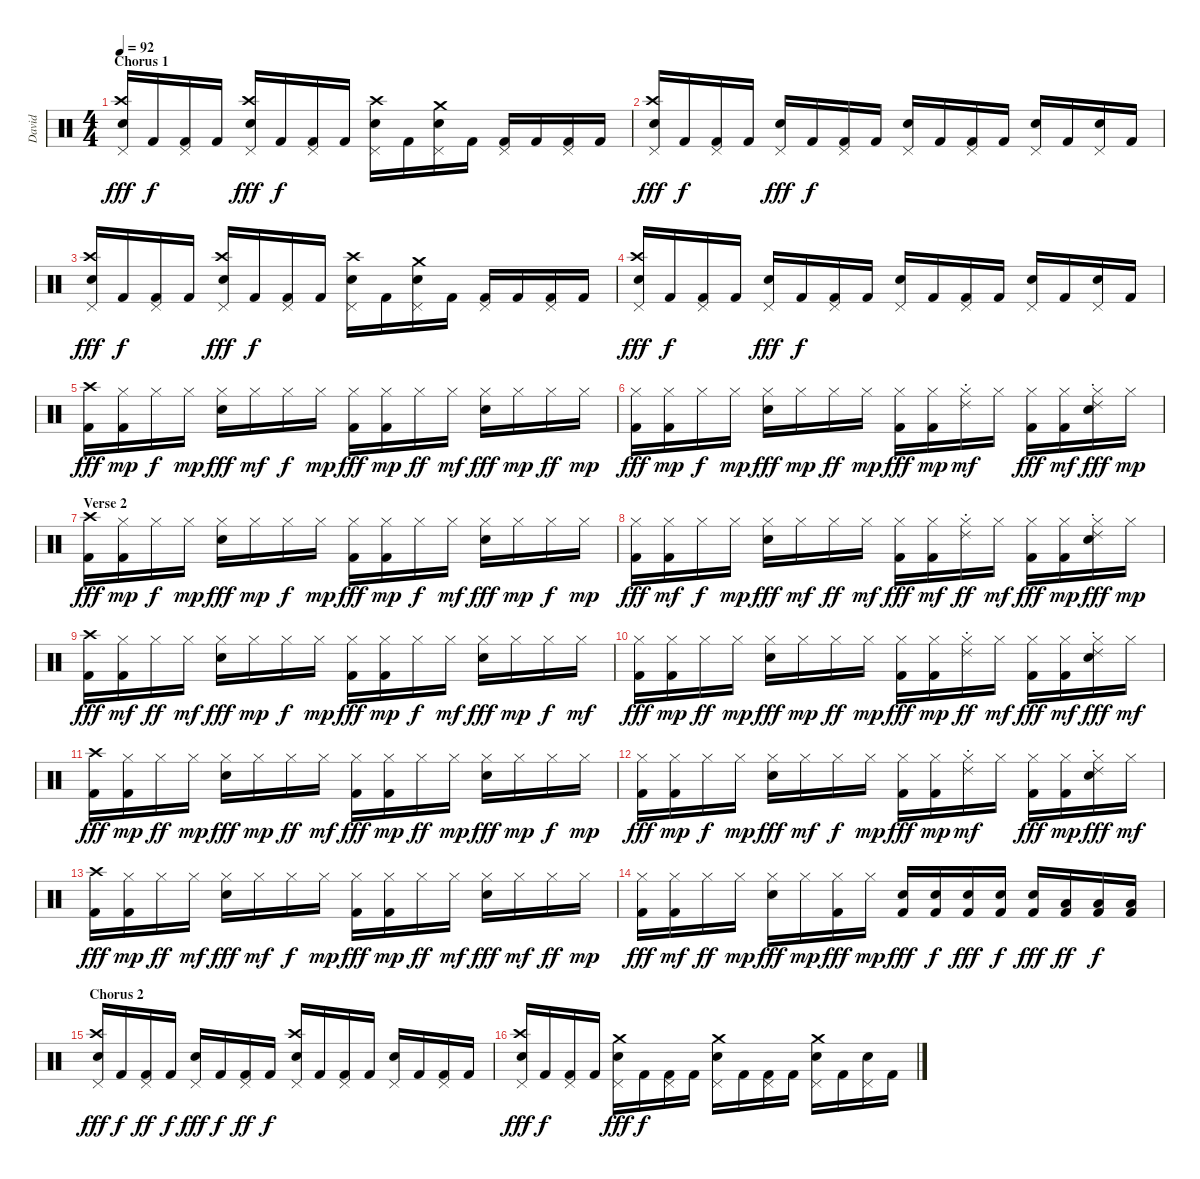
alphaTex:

\track ("David" "David") {instrument percussion}
\staff {score}
\articulation defaults
\ts (4 4)
\section ("" "Chorus 1")
\tempo 92
\clef neutral
\ks c
("Pedal Hi-Hat (hit)" "Crash high (hit)" "Electric Snare (hit)").16{dy fff} "Kick (hit) 2".16{dy f} ("Pedal Hi-Hat (hit)" "Kick (hit) 2").16 "Kick (hit) 2".16 ("Pedal Hi-Hat (hit)" "Crash high (hit)" "Electric Snare (hit)").16{dy fff} "Kick (hit) 2".16{dy f} ("Pedal Hi-Hat (hit)" "Kick (hit) 2").16 "Kick (hit) 2".16 ("Pedal Hi-Hat (hit)" "Crash high (hit)" "Electric Snare (hit)").16 "Kick (hit) 2".16 ("Pedal Hi-Hat (hit)" "Crash medium (hit)" "Electric Snare (hit)").16 "Kick (hit) 2".16 ("Pedal Hi-Hat (hit)" "Kick (hit) 2").16 "Kick (hit) 2".16 ("Pedal Hi-Hat (hit)" "Kick (hit) 2").16 "Kick (hit) 2".16 |
("Pedal Hi-Hat (hit)" "Crash high (hit)" "Electric Snare (hit)").16{dy fff} "Kick (hit) 2".16{dy f} ("Pedal Hi-Hat (hit)" "Kick (hit) 2").16 "Kick (hit) 2".16 ("Pedal Hi-Hat (hit)" "Electric Snare (hit)").16{dy fff} "Kick (hit) 2".16{dy f} ("Pedal Hi-Hat (hit)" "Kick (hit) 2").16 "Kick (hit) 2".16 ("Pedal Hi-Hat (hit)" "Electric Snare (hit)").16 "Kick (hit) 2".16 ("Pedal Hi-Hat (hit)" "Kick (hit) 2").16 "Kick (hit) 2".16 ("Pedal Hi-Hat (hit)" "Electric Snare (hit)").16 "Kick (hit) 2".16 ("Pedal Hi-Hat (hit)" "Electric Snare (hit)").16 "Kick (hit) 2".16 |
("Pedal Hi-Hat (hit)" "Crash high (hit)" "Electric Snare (hit)").16{dy fff} "Kick (hit) 2".16{dy f} ("Pedal Hi-Hat (hit)" "Kick (hit) 2").16 "Kick (hit) 2".16 ("Pedal Hi-Hat (hit)" "Crash high (hit)" "Electric Snare (hit)").16{dy fff} "Kick (hit) 2".16{dy f} ("Pedal Hi-Hat (hit)" "Kick (hit) 2").16 "Kick (hit) 2".16 ("Pedal Hi-Hat (hit)" "Crash high (hit)" "Electric Snare (hit)").16 "Kick (hit) 2".16 ("Pedal Hi-Hat (hit)" "Crash medium (hit)" "Electric Snare (hit)").16 "Kick (hit) 2".16 ("Pedal Hi-Hat (hit)" "Kick (hit) 2").16 "Kick (hit) 2".16 ("Pedal Hi-Hat (hit)" "Kick (hit) 2").16 "Kick (hit) 2".16 |
("Pedal Hi-Hat (hit)" "Crash high (hit)" "Electric Snare (hit)").16{dy fff} "Kick (hit) 2".16{dy f} ("Pedal Hi-Hat (hit)" "Kick (hit) 2").16 "Kick (hit) 2".16 ("Pedal Hi-Hat (hit)" "Electric Snare (hit)").16{dy fff} "Kick (hit) 2".16{dy f} ("Pedal Hi-Hat (hit)" "Kick (hit) 2").16 "Kick (hit) 2".16 ("Pedal Hi-Hat (hit)" "Electric Snare (hit)").16 "Kick (hit) 2".16 ("Pedal Hi-Hat (hit)" "Kick (hit) 2").16 "Kick (hit) 2".16 ("Pedal Hi-Hat (hit)" "Electric Snare (hit)").16 "Kick (hit) 2".16 ("Pedal Hi-Hat (hit)" "Electric Snare (hit)").16 "Kick (hit) 2".16 |
("Crash high (hit)" "Kick (hit) 2").16{dy fff} ("Hi-Hat (closed)" "Kick (hit) 2").16{dy mp} "Hi-Hat (closed)".16{dy f} "Hi-Hat (closed)".16{dy mp} ("Hi-Hat (closed)" "Electric Snare (hit)").16{dy fff} "Hi-Hat (closed)".16{dy mf} "Hi-Hat (closed)".16{dy f} "Hi-Hat (closed)".16{dy mp} ("Hi-Hat (closed)" "Kick (hit) 2").16{dy fff} ("Hi-Hat (closed)" "Kick (hit) 2").16{dy mp} "Hi-Hat (closed)".16{dy ff} "Hi-Hat (closed)".16{dy mf} ("Hi-Hat (closed)" "Electric Snare (hit)").16{dy fff} "Hi-Hat (closed)".16{dy mp} "Hi-Hat (closed)".16{dy ff} "Hi-Hat (closed)".16{dy mp} |
("Hi-Hat (closed)" "Kick (hit) 2").16{dy fff} ("Hi-Hat (closed)" "Kick (hit) 2").16{dy mp} "Hi-Hat (closed)".16{dy f} "Hi-Hat (closed)".16{dy mp} ("Hi-Hat (closed)" "Electric Snare (hit)").16{dy fff} "Hi-Hat (closed)".16{dy mp} "Hi-Hat (closed)".16{dy ff} "Hi-Hat (closed)".16{dy mp} ("Hi-Hat (closed)" "Kick (hit) 2").16{dy fff} ("Hi-Hat (closed)" "Kick (hit) 2").16{dy mp} ("Ride (choke) 2" "Hi-Hat (closed)").16{dy mf} "Hi-Hat (closed)".16 ("Hi-Hat (closed)" "Kick (hit) 2").16{dy fff} ("Hi-Hat (closed)" "Kick (hit) 2").16{dy mf} ("Ride (choke) 2" "Hi-Hat (closed)" "Electric Snare (hit)").16{dy fff} "Hi-Hat (closed)".16{dy mp} |
\section ("" "Verse 2")
("Crash high (hit)" "Kick (hit) 2").16{dy fff} ("Hi-Hat (closed)" "Kick (hit) 2").16{dy mp} "Hi-Hat (closed)".16{dy f} "Hi-Hat (closed)".16{dy mp} ("Hi-Hat (closed)" "Electric Snare (hit)").16{dy fff} "Hi-Hat (closed)".16{dy mp} "Hi-Hat (closed)".16{dy f} "Hi-Hat (closed)".16{dy mp} ("Hi-Hat (closed)" "Kick (hit) 2").16{dy fff} ("Hi-Hat (closed)" "Kick (hit) 2").16{dy mp} "Hi-Hat (closed)".16{dy f} "Hi-Hat (closed)".16{dy mf} ("Hi-Hat (closed)" "Electric Snare (hit)").16{dy fff} "Hi-Hat (closed)".16{dy mp} "Hi-Hat (closed)".16{dy f} "Hi-Hat (closed)".16{dy mp} |
("Hi-Hat (closed)" "Kick (hit) 2").16{dy fff} ("Hi-Hat (closed)" "Kick (hit) 2").16{dy mf} "Hi-Hat (closed)".16{dy f} "Hi-Hat (closed)".16{dy mp} ("Hi-Hat (closed)" "Electric Snare (hit)").16{dy fff} "Hi-Hat (closed)".16{dy mf} "Hi-Hat (closed)".16{dy ff} "Hi-Hat (closed)".16{dy mf} ("Hi-Hat (closed)" "Kick (hit) 2").16{dy fff} ("Hi-Hat (closed)" "Kick (hit) 2").16{dy mf} ("Ride (choke) 2" "Hi-Hat (closed)").16{dy ff} "Hi-Hat (closed)".16{dy mf} ("Hi-Hat (closed)" "Kick (hit) 2").16{dy fff} ("Hi-Hat (closed)" "Kick (hit) 2").16{dy mp} ("Ride (choke) 2" "Hi-Hat (closed)" "Electric Snare (hit)").16{dy fff} "Hi-Hat (closed)".16{dy mp} |
("Crash high (hit)" "Kick (hit) 2").16{dy fff} ("Hi-Hat (closed)" "Kick (hit) 2").16{dy mf} "Hi-Hat (closed)".16{dy ff} "Hi-Hat (closed)".16{dy mf} ("Hi-Hat (closed)" "Electric Snare (hit)").16{dy fff} "Hi-Hat (closed)".16{dy mp} "Hi-Hat (closed)".16{dy f} "Hi-Hat (closed)".16{dy mp} ("Hi-Hat (closed)" "Kick (hit) 2").16{dy fff} ("Hi-Hat (closed)" "Kick (hit) 2").16{dy mp} "Hi-Hat (closed)".16{dy f} "Hi-Hat (closed)".16{dy mf} ("Hi-Hat (closed)" "Electric Snare (hit)").16{dy fff} "Hi-Hat (closed)".16{dy mp} "Hi-Hat (closed)".16{dy f} "Hi-Hat (closed)".16{dy mf} |
("Hi-Hat (closed)" "Kick (hit) 2").16{dy fff} ("Hi-Hat (closed)" "Kick (hit) 2").16{dy mp} "Hi-Hat (closed)".16{dy ff} "Hi-Hat (closed)".16{dy mp} ("Hi-Hat (closed)" "Electric Snare (hit)").16{dy fff} "Hi-Hat (closed)".16{dy mp} "Hi-Hat (closed)".16{dy ff} "Hi-Hat (closed)".16{dy mp} ("Hi-Hat (closed)" "Kick (hit) 2").16{dy fff} ("Hi-Hat (closed)" "Kick (hit) 2").16{dy mp} ("Ride (choke) 2" "Hi-Hat (closed)").16{dy ff} "Hi-Hat (closed)".16{dy mf} ("Hi-Hat (closed)" "Kick (hit) 2").16{dy fff} ("Hi-Hat (closed)" "Kick (hit) 2").16{dy mf} ("Ride (choke) 2" "Hi-Hat (closed)" "Electric Snare (hit)").16{dy fff} "Hi-Hat (closed)".16{dy mf} |
("Crash high (hit)" "Kick (hit) 2").16{dy fff} ("Hi-Hat (closed)" "Kick (hit) 2").16{dy mp} "Hi-Hat (closed)".16{dy ff} "Hi-Hat (closed)".16{dy mp} ("Hi-Hat (closed)" "Electric Snare (hit)").16{dy fff} "Hi-Hat (closed)".16{dy mp} "Hi-Hat (closed)".16{dy ff} "Hi-Hat (closed)".16{dy mf} ("Hi-Hat (closed)" "Kick (hit) 2").16{dy fff} ("Hi-Hat (closed)" "Kick (hit) 2").16{dy mp} "Hi-Hat (closed)".16{dy ff} "Hi-Hat (closed)".16{dy mp} ("Hi-Hat (closed)" "Electric Snare (hit)").16{dy fff} "Hi-Hat (closed)".16{dy mp} "Hi-Hat (closed)".16{dy f} "Hi-Hat (closed)".16{dy mp} |
("Hi-Hat (closed)" "Kick (hit) 2").16{dy fff} ("Hi-Hat (closed)" "Kick (hit) 2").16{dy mp} "Hi-Hat (closed)".16{dy f} "Hi-Hat (closed)".16{dy mp} ("Hi-Hat (closed)" "Electric Snare (hit)").16{dy fff} "Hi-Hat (closed)".16{dy mf} "Hi-Hat (closed)".16{dy f} "Hi-Hat (closed)".16{dy mp} ("Hi-Hat (closed)" "Kick (hit) 2").16{dy fff} ("Hi-Hat (closed)" "Kick (hit) 2").16{dy mp} ("Ride (choke) 2" "Hi-Hat (closed)").16{dy mf} "Hi-Hat (closed)".16 ("Hi-Hat (closed)" "Kick (hit) 2").16{dy fff} ("Hi-Hat (closed)" "Kick (hit) 2").16{dy mp} ("Ride (choke) 2" "Hi-Hat (closed)" "Electric Snare (hit)").16{dy fff} "Hi-Hat (closed)".16{dy mf} |
("Crash high (hit)" "Kick (hit) 2").16{dy fff} ("Hi-Hat (closed)" "Kick (hit) 2").16{dy mp} "Hi-Hat (closed)".16{dy ff} "Hi-Hat (closed)".16{dy mf} ("Hi-Hat (closed)" "Electric Snare (hit)").16{dy fff} "Hi-Hat (closed)".16{dy mf} "Hi-Hat (closed)".16{dy f} "Hi-Hat (closed)".16{dy mp} ("Hi-Hat (closed)" "Kick (hit) 2").16{dy fff} ("Hi-Hat (closed)" "Kick (hit) 2").16{dy mp} "Hi-Hat (closed)".16{dy ff} "Hi-Hat (closed)".16{dy mf} ("Hi-Hat (closed)" "Electric Snare (hit)").16{dy fff} "Hi-Hat (closed)".16{dy mf} "Hi-Hat (closed)".16{dy ff} "Hi-Hat (closed)".16{dy mp} |
("Hi-Hat (closed)" "Kick (hit) 2").16{dy fff} ("Hi-Hat (closed)" "Kick (hit) 2").16{dy mf} "Hi-Hat (closed)".16{dy ff} "Hi-Hat (closed)".16{dy mp} ("Hi-Hat (closed)" "Electric Snare (hit)").16{dy fff} "Hi-Hat (closed)".16{dy mp} ("Hi-Hat (closed)" "Kick (hit) 2").16{dy fff} "Hi-Hat (closed)".16{dy mp} ("Electric Snare (hit)" "Kick (hit) 2").16{dy fff} ("Electric Snare (hit)" "Kick (hit) 2").16{dy f} ("Electric Snare (hit)" "Kick (hit) 2").16{dy fff} ("Electric Snare (hit)" "Kick (hit) 2").16{dy f} ("Electric Snare (hit)" "Kick (hit) 2").16{dy fff} ("Low Tom (hit)" "Kick (hit) 2").16{dy ff} ("Low Tom (hit)" "Kick (hit) 2").16{dy f} ("Low Floor Tom (hit)" "Kick (hit) 2").16 |
\section ("" "Chorus 2")
("Pedal Hi-Hat (hit)" "Crash high (hit)" "Electric Snare (hit)").16{dy fff} "Kick (hit) 2".16{dy f} ("Pedal Hi-Hat (hit)" "Kick (hit) 2").16{dy ff} "Kick (hit) 2".16{dy f} ("Pedal Hi-Hat (hit)" "Electric Snare (hit)").16{dy fff} "Kick (hit) 2".16{dy f} ("Pedal Hi-Hat (hit)" "Kick (hit) 2").16{dy ff} "Kick (hit) 2".16{dy f} ("Pedal Hi-Hat (hit)" "Crash high (hit)" "Electric Snare (hit)").16 "Kick (hit) 2".16 ("Pedal Hi-Hat (hit)" "Kick (hit) 2").16 "Kick (hit) 2".16 ("Pedal Hi-Hat (hit)" "Electric Snare (hit)").16 "Kick (hit) 2".16 ("Pedal Hi-Hat (hit)" "Kick (hit) 2").16 "Kick (hit) 2".16 |
("Pedal Hi-Hat (hit)" "Crash high (hit)" "Electric Snare (hit)").16{dy fff} "Kick (hit) 2".16{dy f} ("Pedal Hi-Hat (hit)" "Kick (hit) 2").16 "Kick (hit) 2".16 ("Pedal Hi-Hat (hit)" "Crash medium (hit)" "Electric Snare (hit)").16{dy fff} "Kick (hit) 2".16{dy f} ("Pedal Hi-Hat (hit)" "Kick (hit) 2").16 "Kick (hit) 2".16 ("Pedal Hi-Hat (hit)" "Crash medium (hit)" "Electric Snare (hit)").16 "Kick (hit) 2".16 ("Pedal Hi-Hat (hit)" "Kick (hit) 2").16 "Kick (hit) 2".16 ("Pedal Hi-Hat (hit)" "Crash medium (hit)" "Electric Snare (hit)").16 "Kick (hit) 2".16 ("Pedal Hi-Hat (hit)" "Electric Snare (hit)").16 "Kick (hit) 2".16
